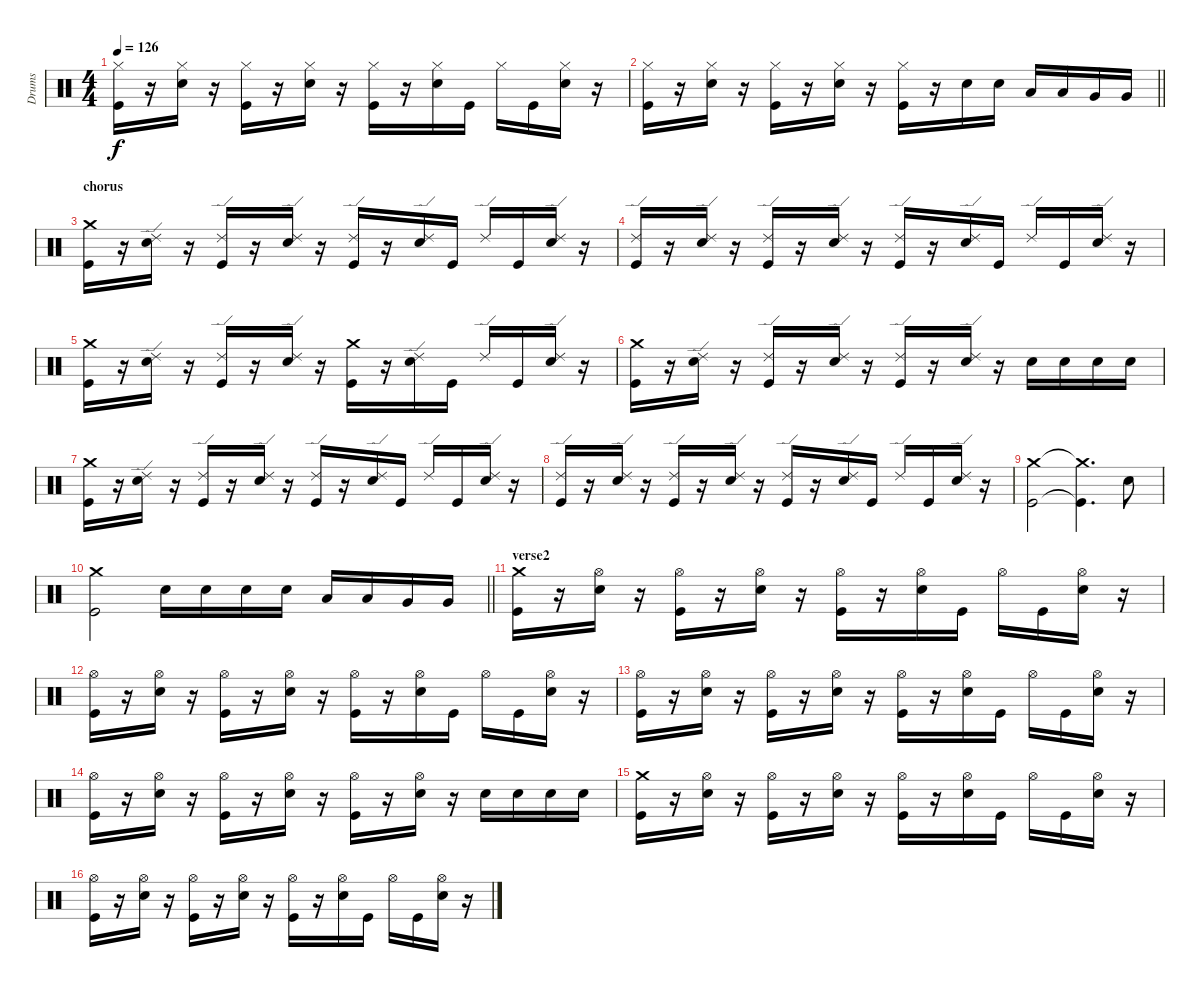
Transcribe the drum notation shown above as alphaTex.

\track ("Drums" "Drums") {instrument percussion}
\staff {score}
\articulation defaults
\ts (4 4)
\tempo 126
\clef neutral
\ks c
("Hi-Hat (closed)" "Kick (hit)").16{dy f} r.16 ("Hi-Hat (closed)" "Snare (hit) 2").16 r.16 ("Hi-Hat (closed)" "Kick (hit)").16 r.16 ("Hi-Hat (closed)" "Snare (hit) 2").16 r.16 ("Hi-Hat (closed)" "Kick (hit)").16 r.16 ("Hi-Hat (closed)" "Snare (hit) 2").16 "Kick (hit)".16 "Hi-Hat (closed)".16 "Kick (hit)".16 ("Hi-Hat (closed)" "Snare (hit) 2").16 r.16 |
\barLineRight lightlight
("Hi-Hat (closed)" "Kick (hit)").16 r.16 ("Hi-Hat (closed)" "Snare (hit) 2").16 r.16 ("Hi-Hat (closed)" "Kick (hit)").16 r.16 ("Hi-Hat (closed)" "Snare (hit) 2").16 r.16 ("Hi-Hat (closed)" "Kick (hit)").16 r.16 "Snare (hit) 2".16 "Snare (hit) 2".16 "Low Tom (hit)".16 "Low Tom (hit)".16 "Very Low Tom (hit)".16 "Very Low Tom (hit)".16 |
\section ("" "chorus")
("Crash medium (hit)" "Kick (hit)").16 r.16 ("Ride (edge) 2" "Snare (hit) 2").16 r.16 ("Ride (edge) 2" "Kick (hit)").16 r.16 ("Ride (edge) 2" "Snare (hit) 2").16 r.16 ("Ride (edge) 2" "Kick (hit)").16 r.16 ("Ride (edge) 2" "Snare (hit) 2").16 "Kick (hit)".16 "Ride (edge) 2".16 "Kick (hit)".16 ("Ride (edge) 2" "Snare (hit) 2").16 r.16 |
("Ride (edge) 2" "Kick (hit)").16 r.16 ("Ride (edge) 2" "Snare (hit) 2").16 r.16 ("Ride (edge) 2" "Kick (hit)").16 r.16 ("Ride (edge) 2" "Snare (hit) 2").16 r.16 ("Ride (edge) 2" "Kick (hit)").16 r.16 ("Ride (edge) 2" "Snare (hit) 2").16 "Kick (hit)".16 "Ride (edge) 2".16 "Kick (hit)".16 ("Ride (edge) 2" "Snare (hit) 2").16 r.16 |
("Crash medium (hit)" "Kick (hit)").16 r.16 ("Ride (edge) 2" "Snare (hit) 2").16 r.16 ("Ride (edge) 2" "Kick (hit)").16 r.16 ("Ride (edge) 2" "Snare (hit) 2").16 r.16 ("Crash medium (hit)" "Kick (hit)").16 r.16 ("Ride (edge) 2" "Snare (hit) 2").16 "Kick (hit)".16 "Ride (edge) 2".16 "Kick (hit)".16 ("Ride (edge) 2" "Snare (hit) 2").16 r.16 |
("Crash medium (hit)" "Kick (hit)").16 r.16 ("Ride (edge) 2" "Snare (hit) 2").16 r.16 ("Ride (edge) 2" "Kick (hit)").16 r.16 ("Ride (edge) 2" "Snare (hit) 2").16 r.16 ("Ride (edge) 2" "Kick (hit)").16 r.16 ("Ride (edge) 2" "Snare (hit) 2").16 r.16 "Snare (hit) 2".16 "Snare (hit) 2".16 "Snare (hit) 2".16 "Snare (hit) 2".16 |
("Crash medium (hit)" "Kick (hit)").16 r.16 ("Ride (edge) 2" "Snare (hit) 2").16 r.16 ("Ride (edge) 2" "Kick (hit)").16 r.16 ("Ride (edge) 2" "Snare (hit) 2").16 r.16 ("Ride (edge) 2" "Kick (hit)").16 r.16 ("Ride (edge) 2" "Snare (hit) 2").16 "Kick (hit)".16 "Ride (edge) 2".16 "Kick (hit)".16 ("Ride (edge) 2" "Snare (hit) 2").16 r.16 |
("Ride (edge) 2" "Kick (hit)").16 r.16 ("Ride (edge) 2" "Snare (hit) 2").16 r.16 ("Ride (edge) 2" "Kick (hit)").16 r.16 ("Ride (edge) 2" "Snare (hit) 2").16 r.16 ("Ride (edge) 2" "Kick (hit)").16 r.16 ("Ride (edge) 2" "Snare (hit) 2").16 "Kick (hit)".16 "Ride (edge) 2".16 "Kick (hit)".16 ("Ride (edge) 2" "Snare (hit) 2").16 r.16 |
("Crash medium (hit)" "Kick (hit)").2 ("Crash medium (hit)"{t} "Kick (hit)"{t}).4{d} "Snare (hit) 2".8 |
\barLineRight lightlight
("Crash medium (hit)" "Kick (hit)").2 "Snare (hit) 2".16 "Snare (hit) 2".16 "Snare (hit) 2".16 "Snare (hit) 2".16 "Low Tom (hit)".16 "Low Tom (hit)".16 "Very Low Tom (hit)".16 "Very Low Tom (hit)".16 |
\section ("" "verse2")
("Crash medium (hit)" "Kick (hit)").16 r.16 ("Hi-Hat (open)" "Snare (hit) 2").16 r.16 ("Hi-Hat (open)" "Kick (hit)").16 r.16 ("Hi-Hat (open)" "Snare (hit) 2").16 r.16 ("Hi-Hat (open)" "Kick (hit)").16 r.16 ("Hi-Hat (open)" "Snare (hit) 2").16 "Kick (hit)".16 "Hi-Hat (open)".16 "Kick (hit)".16 ("Hi-Hat (open)" "Snare (hit) 2").16 r.16 |
("Hi-Hat (open)" "Kick (hit)").16 r.16 ("Hi-Hat (open)" "Snare (hit) 2").16 r.16 ("Hi-Hat (open)" "Kick (hit)").16 r.16 ("Hi-Hat (open)" "Snare (hit) 2").16 r.16 ("Hi-Hat (open)" "Kick (hit)").16 r.16 ("Hi-Hat (open)" "Snare (hit) 2").16 "Kick (hit)".16 "Hi-Hat (open)".16 "Kick (hit)".16 ("Hi-Hat (open)" "Snare (hit) 2").16 r.16 |
("Hi-Hat (open)" "Kick (hit)").16 r.16 ("Hi-Hat (open)" "Snare (hit) 2").16 r.16 ("Hi-Hat (open)" "Kick (hit)").16 r.16 ("Hi-Hat (open)" "Snare (hit) 2").16 r.16 ("Hi-Hat (open)" "Kick (hit)").16 r.16 ("Hi-Hat (open)" "Snare (hit) 2").16 "Kick (hit)".16 "Hi-Hat (open)".16 "Kick (hit)".16 ("Hi-Hat (open)" "Snare (hit) 2").16 r.16 |
("Hi-Hat (open)" "Kick (hit)").16 r.16 ("Hi-Hat (open)" "Snare (hit) 2").16 r.16 ("Hi-Hat (open)" "Kick (hit)").16 r.16 ("Hi-Hat (open)" "Snare (hit) 2").16 r.16 ("Hi-Hat (open)" "Kick (hit)").16 r.16 ("Hi-Hat (open)" "Snare (hit) 2").16 r.16 "Snare (hit) 2".16 "Snare (hit) 2".16 "Snare (hit) 2".16 "Snare (hit) 2".16 |
("Crash medium (hit)" "Kick (hit)").16 r.16 ("Hi-Hat (open)" "Snare (hit) 2").16 r.16 ("Hi-Hat (open)" "Kick (hit)").16 r.16 ("Hi-Hat (open)" "Snare (hit) 2").16 r.16 ("Hi-Hat (open)" "Kick (hit)").16 r.16 ("Hi-Hat (open)" "Snare (hit) 2").16 "Kick (hit)".16 "Hi-Hat (open)".16 "Kick (hit)".16 ("Hi-Hat (open)" "Snare (hit) 2").16 r.16 |
("Hi-Hat (open)" "Kick (hit)").16 r.16 ("Hi-Hat (open)" "Snare (hit) 2").16 r.16 ("Hi-Hat (open)" "Kick (hit)").16 r.16 ("Hi-Hat (open)" "Snare (hit) 2").16 r.16 ("Hi-Hat (open)" "Kick (hit)").16 r.16 ("Hi-Hat (open)" "Snare (hit) 2").16 "Kick (hit)".16 "Hi-Hat (open)".16 "Kick (hit)".16 ("Hi-Hat (open)" "Snare (hit) 2").16 r.16
